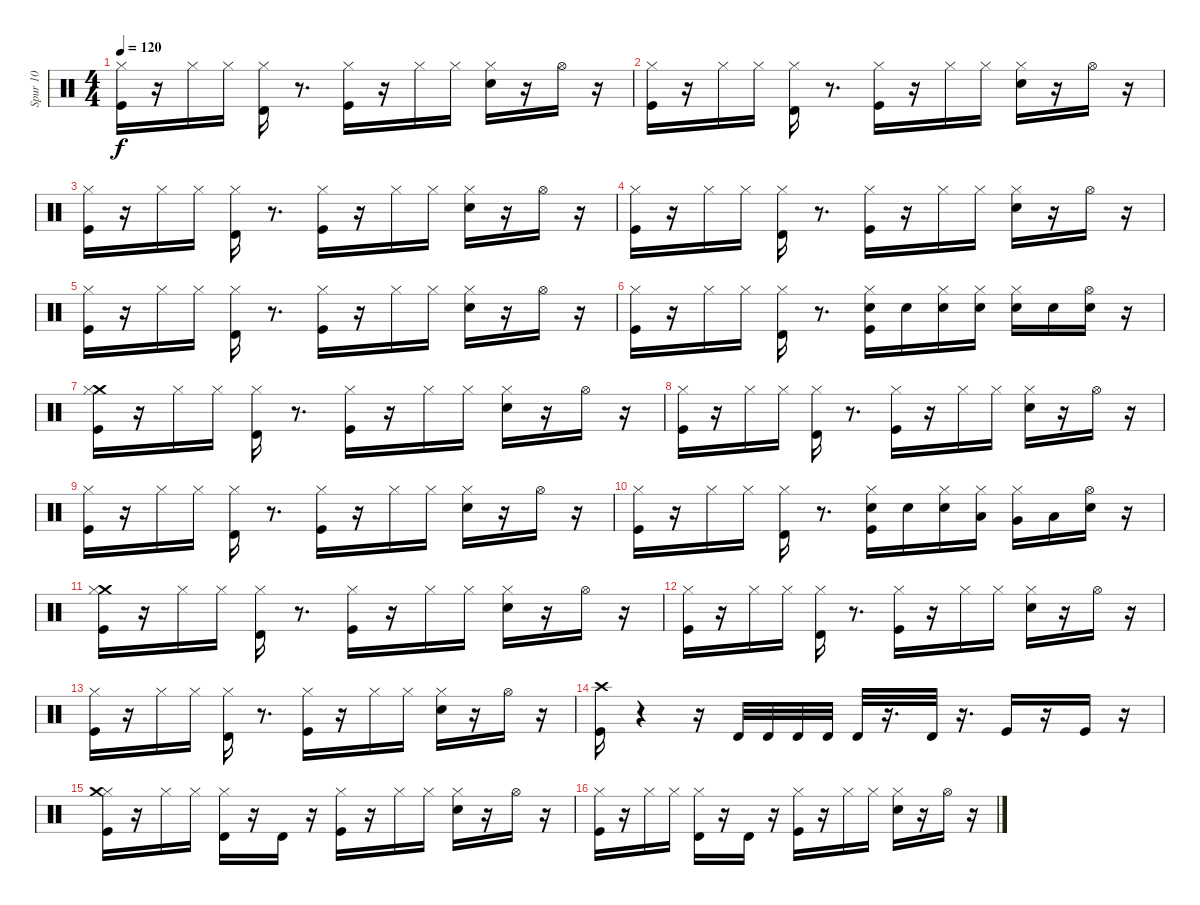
\track ("Spur 10" "Spur 10") {instrument percussion}
\staff {score}
\articulation defaults
\ts (4 4)
\tempo 120
\clef neutral
\ks c
("Hi-Hat (closed)" "Kick (hit)").16{dy f} r.16 "Hi-Hat (closed)".16 "Hi-Hat (closed)".16 ("Hi-Hat (closed)" "Timbale high (hit)").16 r.8{d} ("Hi-Hat (closed)" "Kick (hit)").16 r.16 "Hi-Hat (closed)".16 "Hi-Hat (closed)".16 ("Hi-Hat (closed)" "Snare (hit) 2").16 r.16 "Hi-Hat (open)".16 r.16 |
("Hi-Hat (closed)" "Kick (hit)").16 r.16 "Hi-Hat (closed)".16 "Hi-Hat (closed)".16 ("Hi-Hat (closed)" "Timbale high (hit)").16 r.8{d} ("Hi-Hat (closed)" "Kick (hit)").16 r.16 "Hi-Hat (closed)".16 "Hi-Hat (closed)".16 ("Hi-Hat (closed)" "Snare (hit) 2").16 r.16 "Hi-Hat (open)".16 r.16 |
("Hi-Hat (closed)" "Kick (hit)").16 r.16 "Hi-Hat (closed)".16 "Hi-Hat (closed)".16 ("Hi-Hat (closed)" "Timbale high (hit)").16 r.8{d} ("Hi-Hat (closed)" "Kick (hit)").16 r.16 "Hi-Hat (closed)".16 "Hi-Hat (closed)".16 ("Hi-Hat (closed)" "Snare (hit) 2").16 r.16 "Hi-Hat (open)".16 r.16 |
("Hi-Hat (closed)" "Kick (hit)").16 r.16 "Hi-Hat (closed)".16 "Hi-Hat (closed)".16 ("Hi-Hat (closed)" "Timbale high (hit)").16 r.8{d} ("Hi-Hat (closed)" "Kick (hit)").16 r.16 "Hi-Hat (closed)".16 "Hi-Hat (closed)".16 ("Hi-Hat (closed)" "Snare (hit) 2").16 r.16 "Hi-Hat (open)".16 r.16 |
("Hi-Hat (closed)" "Kick (hit)").16 r.16 "Hi-Hat (closed)".16 "Hi-Hat (closed)".16 ("Hi-Hat (closed)" "Timbale high (hit)").16 r.8{d} ("Hi-Hat (closed)" "Kick (hit)").16 r.16 "Hi-Hat (closed)".16 "Hi-Hat (closed)".16 ("Hi-Hat (closed)" "Snare (hit) 2").16 r.16 "Hi-Hat (open)".16 r.16 |
("Hi-Hat (closed)" "Kick (hit)").16 r.16 "Hi-Hat (closed)".16 "Hi-Hat (closed)".16 ("Hi-Hat (closed)" "Timbale high (hit)").16 r.8{d} ("Electric Snare (hit)" "Hi-Hat (closed)" "Kick (hit)").16 "Electric Snare (hit)".16 ("Electric Snare (hit)" "Hi-Hat (closed)").16 ("Electric Snare (hit)" "Hi-Hat (closed)").16 ("Hi-Hat (closed)" "Electric Snare (hit)").16 "Electric Snare (hit)".16 ("Electric Snare (hit)" "Hi-Hat (open)").16 r.16 |
("Crash medium (hit)" "Hi-Hat (closed)" "Kick (hit)").16 r.16 "Hi-Hat (closed)".16 "Hi-Hat (closed)".16 ("Hi-Hat (closed)" "Timbale high (hit)").16 r.8{d} ("Hi-Hat (closed)" "Kick (hit)").16 r.16 "Hi-Hat (closed)".16 "Hi-Hat (closed)".16 ("Hi-Hat (closed)" "Snare (hit) 2").16 r.16 "Hi-Hat (open)".16 r.16 |
("Hi-Hat (closed)" "Kick (hit)").16 r.16 "Hi-Hat (closed)".16 "Hi-Hat (closed)".16 ("Hi-Hat (closed)" "Timbale high (hit)").16 r.8{d} ("Hi-Hat (closed)" "Kick (hit)").16 r.16 "Hi-Hat (closed)".16 "Hi-Hat (closed)".16 ("Hi-Hat (closed)" "Snare (hit) 2").16 r.16 "Hi-Hat (open)".16 r.16 |
("Hi-Hat (closed)" "Kick (hit)").16 r.16 "Hi-Hat (closed)".16 "Hi-Hat (closed)".16 ("Hi-Hat (closed)" "Timbale high (hit)").16 r.8{d} ("Hi-Hat (closed)" "Kick (hit)").16 r.16 "Hi-Hat (closed)".16 "Hi-Hat (closed)".16 ("Hi-Hat (closed)" "Snare (hit) 2").16 r.16 "Hi-Hat (open)".16 r.16 |
("Hi-Hat (closed)" "Kick (hit)").16 r.16 "Hi-Hat (closed)".16 "Hi-Hat (closed)".16 ("Hi-Hat (closed)" "Timbale high (hit)").16 r.8{d} ("Electric Snare (hit)" "Hi-Hat (closed)" "Kick (hit)").16 "Electric Snare (hit)".16 ("Electric Snare (hit)" "Hi-Hat (closed)").16 ("Low Floor Tom (hit)" "Hi-Hat (closed)").16 ("Hi-Hat (closed)" "Very Low Tom (hit)").16 "Low Tom (hit)".16 ("Electric Snare (hit)" "Hi-Hat (open)").16 r.16 |
("Crash medium (hit)" "Hi-Hat (closed)" "Kick (hit)").16 r.16 "Hi-Hat (closed)".16 "Hi-Hat (closed)".16 ("Hi-Hat (closed)" "Timbale high (hit)").16 r.8{d} ("Hi-Hat (closed)" "Kick (hit)").16 r.16 "Hi-Hat (closed)".16 "Hi-Hat (closed)".16 ("Hi-Hat (closed)" "Snare (hit) 2").16 r.16 "Hi-Hat (open)".16 r.16 |
("Hi-Hat (closed)" "Kick (hit)").16 r.16 "Hi-Hat (closed)".16 "Hi-Hat (closed)".16 ("Hi-Hat (closed)" "Timbale high (hit)").16 r.8{d} ("Hi-Hat (closed)" "Kick (hit)").16 r.16 "Hi-Hat (closed)".16 "Hi-Hat (closed)".16 ("Hi-Hat (closed)" "Snare (hit) 2").16 r.16 "Hi-Hat (open)".16 r.16 |
("Hi-Hat (closed)" "Kick (hit)").16 r.16 "Hi-Hat (closed)".16 "Hi-Hat (closed)".16 ("Hi-Hat (closed)" "Timbale high (hit)").16 r.8{d} ("Hi-Hat (closed)" "Kick (hit)").16 r.16 "Hi-Hat (closed)".16 "Hi-Hat (closed)".16 ("Hi-Hat (closed)" "Snare (hit) 2").16 r.16 "Hi-Hat (open)".16 r.16 |
("Crash high (hit)" "Kick (hit)").16 r.4 r.16 "Timbale high (hit)".32 "Timbale high (hit)".32 "Timbale high (hit)".32 "Timbale high (hit)".32 "Timbale high (hit)".32 r.16{d} "Timbale high (hit)".32 r.16{d} "Kick (hit)".16 r.16 "Kick (hit)".16 r.16 |
("Hi-Hat (closed)" "Kick (hit)" "Crash medium (hit)").16 r.16 "Hi-Hat (closed)".16 "Hi-Hat (closed)".16 ("Hi-Hat (closed)" "Timbale high (hit)").16 r.16 "Timbale high (hit)".16 r.16 ("Hi-Hat (closed)" "Kick (hit)").16 r.16 "Hi-Hat (closed)".16 "Hi-Hat (closed)".16 ("Hi-Hat (closed)" "Snare (hit) 2").16 r.16 "Hi-Hat (open)".16 r.16 |
("Hi-Hat (closed)" "Kick (hit)").16 r.16 "Hi-Hat (closed)".16 "Hi-Hat (closed)".16 ("Hi-Hat (closed)" "Timbale high (hit)").16 r.16 "Timbale high (hit)".16 r.16 ("Hi-Hat (closed)" "Kick (hit)").16 r.16 "Hi-Hat (closed)".16 "Hi-Hat (closed)".16 ("Hi-Hat (closed)" "Snare (hit) 2").16 r.16 "Hi-Hat (open)".16 r.16
